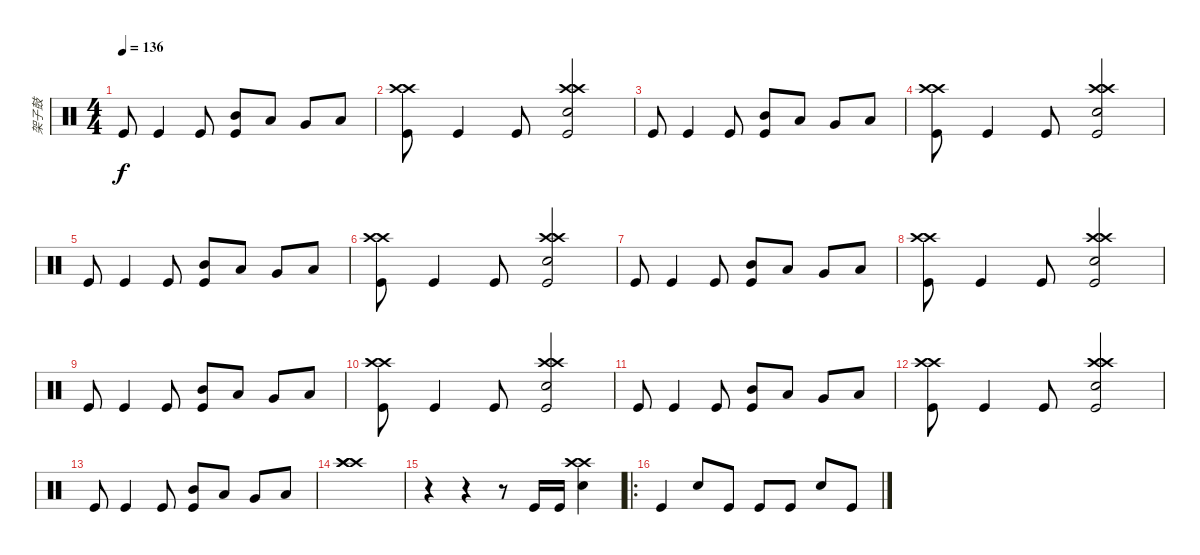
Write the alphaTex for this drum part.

\track ("架子鼓" "架子鼓") {instrument percussion}
\staff {score}
\articulation defaults
\ts (4 4)
\tempo 136
\clef neutral
\ks c "Kick (hit)".8{dy f} "Kick (hit)".4 "Kick (hit)".8
("Mid Tom (hit)" "Kick (hit)").8 "Low Tom (hit)".8 "Very Low Tom (hit)".8 "Low Floor Tom (hit)".8 |
("Crash high (hit)" "Crash high (hit)" "Kick (hit)").8 "Kick (hit)".4 "Kick (hit)".8 ("Crash high (hit)" "Crash high (hit)" "Snare (hit) 2" "Kick (hit)").2 |
"Kick (hit)".8 "Kick (hit)".4 "Kick (hit)".8 ("Mid Tom (hit)" "Kick (hit)").8 "Low Tom (hit)".8 "Very Low Tom (hit)".8 "Low Floor Tom (hit)".8 |
("Crash high (hit)" "Crash high (hit)" "Kick (hit)").8 "Kick (hit)".4 "Kick (hit)".8 ("Crash high (hit)" "Crash high (hit)" "Snare (hit) 2" "Kick (hit)").2 |
"Kick (hit)".8 "Kick (hit)".4 "Kick (hit)".8 ("Mid Tom (hit)" "Kick (hit)").8 "Low Tom (hit)".8 "Very Low Tom (hit)".8 "Low Floor Tom (hit)".8 |
("Crash high (hit)" "Crash high (hit)" "Kick (hit)").8 "Kick (hit)".4 "Kick (hit)".8 ("Crash high (hit)" "Crash high (hit)" "Snare (hit) 2" "Kick (hit)").2 |
"Kick (hit)".8 "Kick (hit)".4 "Kick (hit)".8 ("Mid Tom (hit)" "Kick (hit)").8 "Low Tom (hit)".8 "Very Low Tom (hit)".8 "Low Floor Tom (hit)".8 |
("Crash high (hit)" "Crash high (hit)" "Kick (hit)").8 "Kick (hit)".4 "Kick (hit)".8 ("Crash high (hit)" "Crash high (hit)" "Snare (hit) 2" "Kick (hit)").2 |
"Kick (hit)".8 "Kick (hit)".4 "Kick (hit)".8 ("Mid Tom (hit)" "Kick (hit)").8 "Low Tom (hit)".8 "Very Low Tom (hit)".8 "Low Floor Tom (hit)".8 |
("Crash high (hit)" "Crash high (hit)" "Kick (hit)").8 "Kick (hit)".4 "Kick (hit)".8 ("Crash high (hit)" "Crash high (hit)" "Snare (hit) 2" "Kick (hit)").2 |
"Kick (hit)".8 "Kick (hit)".4 "Kick (hit)".8 ("Mid Tom (hit)" "Kick (hit)").8 "Low Tom (hit)".8 "Very Low Tom (hit)".8 "Low Floor Tom (hit)".8 |
("Crash high (hit)" "Crash high (hit)" "Kick (hit)").8 "Kick (hit)".4 "Kick (hit)".8 ("Crash high (hit)" "Crash high (hit)" "Snare (hit) 2" "Kick (hit)").2 |
"Kick (hit)".8 "Kick (hit)".4 "Kick (hit)".8 ("Mid Tom (hit)" "Kick (hit)").8 "Low Tom (hit)".8 "Very Low Tom (hit)".8 "Low Floor Tom (hit)".8 |
("Crash high (hit)" "Crash high (hit)" "Crash high (hit)").1 |
r.4 r.4 r.8 "Kick (hit)".16 "Kick (hit)".16 ("Crash high (hit)" "Crash high (hit)" "Snare (hit) 2").4 |
\ro "Kick (hit)".4 "Snare (hit) 2".8 "Kick (hit)".8 "Kick (hit)".8 "Kick (hit)".8 "Snare (hit) 2".8 "Kick (hit)".8
